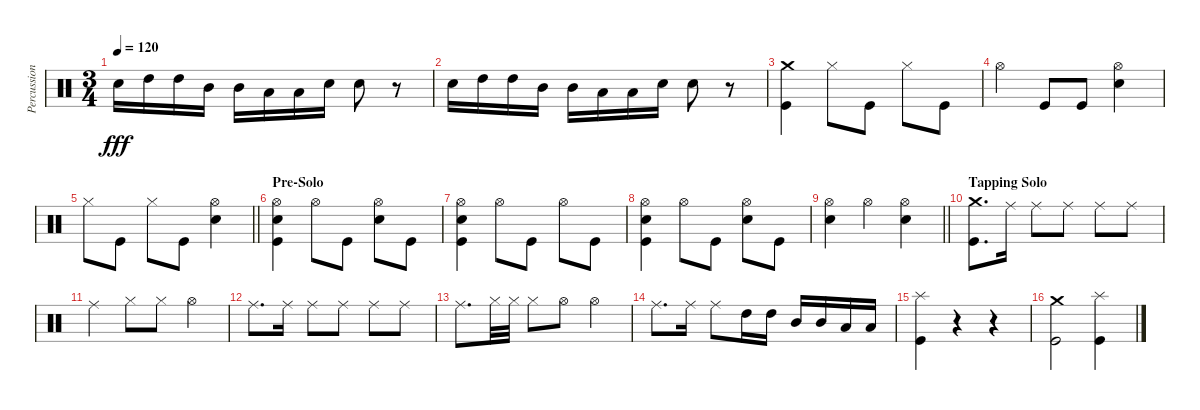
\track ("Percussion" "Percussion") {instrument percussion}
\staff {score}
\articulation defaults
\ts (3 4)
\tempo 120
\clef neutral
\ks c "Electric Snare (hit)".16{dy fff} "High Tom (hit)".16 "High Tom (hit)".16 "Mid Tom (hit)".16 "Mid Tom (hit)".16 "Low Tom (hit)".16 "Low Tom (hit)".16 "Electric Snare (hit)".16 "Electric Snare (hit)".8
r.8 |
"Electric Snare (hit)".16 "High Tom (hit)".16 "High Tom (hit)".16 "Mid Tom (hit)".16 "Mid Tom (hit)".16 "Low Tom (hit)".16 "Low Tom (hit)".16 "Electric Snare (hit)".16 "Electric Snare (hit)".8 r.8 |
("Crash medium (hit)" "Kick (hit)").4 "Hi-Hat (closed)".8 "Kick (hit)".8 "Hi-Hat (closed)".8 "Kick (hit)".8 |
"Hi-Hat (open)".4 "Kick (hit)".8 "Kick (hit)".8 ("Hi-Hat (open)" "Electric Snare (hit)").4 |
\barLineRight lightlight "Hi-Hat (closed)".8 "Kick (hit)".8 "Hi-Hat (closed)".8 "Kick (hit)".8
("Hi-Hat (open)" "Electric Snare (hit)").4 |
\section ("" "Pre-Solo")
("Hi-Hat (open)" "Electric Snare (hit)" "Kick (hit)").4 "Hi-Hat (open)".8 "Kick (hit)".8 ("Hi-Hat (open)" "Electric Snare (hit)").8 "Kick (hit)".8 |
("Hi-Hat (open)" "Electric Snare (hit)" "Kick (hit)").4 "Hi-Hat (open)".8 "Kick (hit)".8 "Hi-Hat (open)".8 "Kick (hit)".8 |
("Hi-Hat (open)" "Electric Snare (hit)" "Kick (hit)").4 "Hi-Hat (open)".8 "Kick (hit)".8 ("Hi-Hat (open)" "Electric Snare (hit)").8 "Kick (hit)".8 |
\barLineRight lightlight
("Hi-Hat (open)" "Electric Snare (hit)").4 "Hi-Hat (open)".4 ("Hi-Hat (open)" "Electric Snare (hit)").4 |
\section ("" "Tapping Solo")
("Crash medium (hit)" "Kick (hit)").8{d} "Ride (middle)".16 "Ride (middle)".8 "Ride (middle)".8 "Ride (middle)".8 "Ride (middle)".8 |
"Ride (middle)".4 "Hi-Hat (closed)".8 "Hi-Hat (closed)".8 "Hi-Hat (open)".4 |
"Ride (middle)".8{d} "Ride (middle)".16 "Ride (middle)".8 "Ride (middle)".8 "Ride (middle)".8 "Ride (middle)".8 |
"Ride (middle)".8{d} "Hi-Hat (closed)".32 "Hi-Hat (closed)".32 "Hi-Hat (closed)".8 "Hi-Hat (open)".8 "Hi-Hat (open)".4 |
"Ride (middle)".8{d} "Ride (middle)".16 "Ride (middle)".8 "High Tom (hit)".16 "High Tom (hit)".16 "Mid Tom (hit)".16 "Mid Tom (hit)".16 "Low Tom (hit)".16 "Low Tom (hit)".16 |
("Splash (hit)" "Kick (hit)").4 r.4 r.4 |
("Crash medium (hit)" "Kick (hit)").2 ("Splash (hit)" "Kick (hit)").4
